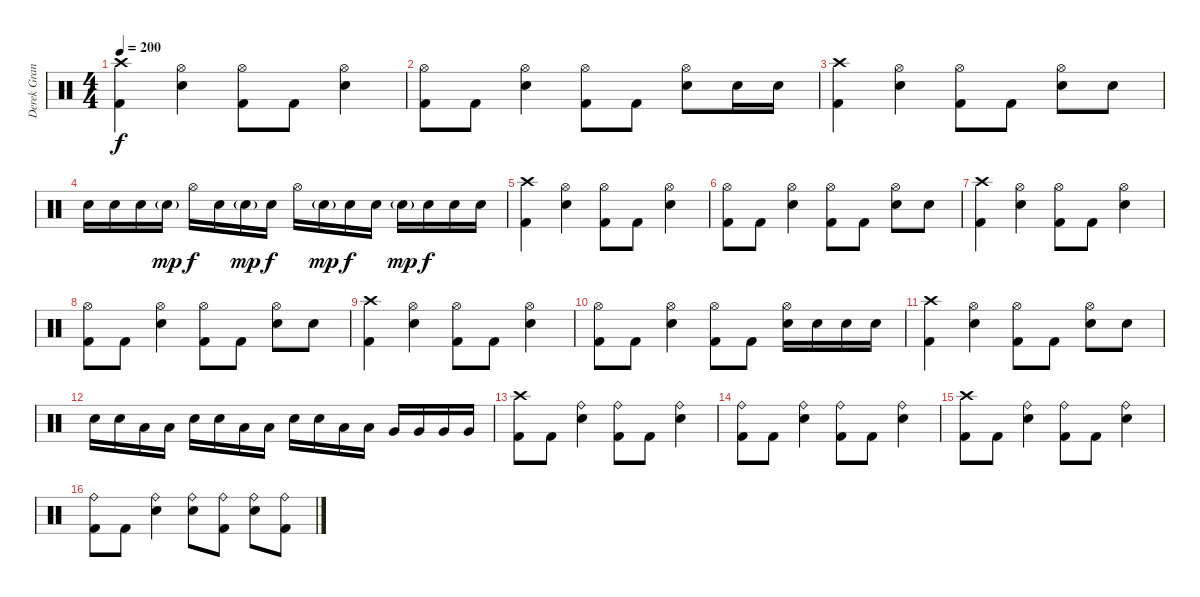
\track ("Derek Grant" "Derek Gran") {instrument percussion}
\staff {score}
\articulation defaults
\ts (4 4)
\tempo 200
\clef neutral
\ks c
("Crash high (hit)" "Kick (hit) 2").4{dy f} ("Hi-Hat (open)" "Electric Snare (hit)").4 ("Hi-Hat (open)" "Kick (hit) 2").8 "Kick (hit) 2".8 ("Hi-Hat (open)" "Electric Snare (hit)").4 |
("Hi-Hat (open)" "Kick (hit) 2").8 "Kick (hit) 2".8 ("Hi-Hat (open)" "Electric Snare (hit)").4 ("Hi-Hat (open)" "Kick (hit) 2").8 "Kick (hit) 2".8 ("Hi-Hat (open)" "Electric Snare (hit)").8 "Electric Snare (hit)".16 "Electric Snare (hit)".16 |
("Crash high (hit)" "Kick (hit) 2").4 ("Hi-Hat (open)" "Electric Snare (hit)").4 ("Hi-Hat (open)" "Kick (hit) 2").8 "Kick (hit) 2".8 ("Hi-Hat (open)" "Electric Snare (hit)").8 "Electric Snare (hit)".8 |
"Electric Snare (hit)".16 "Electric Snare (hit)".16 "Electric Snare (hit)".16 "Electric Snare (hit)"{g}.16{dy mp} "Hi-Hat (open)".16{dy f} "Electric Snare (hit)".16 "Electric Snare (hit)"{g}.16{dy mp} "Electric Snare (hit)".16{dy f} "Hi-Hat (open)".16 "Electric Snare (hit)"{g}.16{dy mp} "Electric Snare (hit)".16{dy f} "Electric Snare (hit)".16 "Electric Snare (hit)"{g}.16{dy mp} "Electric Snare (hit)".16{dy f} "Electric Snare (hit)".16 "Electric Snare (hit)".16 |
("Crash high (hit)" "Kick (hit) 2").4 ("Hi-Hat (open)" "Electric Snare (hit)").4 ("Hi-Hat (open)" "Kick (hit) 2").8 "Kick (hit) 2".8 ("Hi-Hat (open)" "Electric Snare (hit)").4 |
("Hi-Hat (open)" "Kick (hit) 2").8 "Kick (hit) 2".8 ("Hi-Hat (open)" "Electric Snare (hit)").4 ("Hi-Hat (open)" "Kick (hit) 2").8 "Kick (hit) 2".8 ("Hi-Hat (open)" "Electric Snare (hit)").8 "Electric Snare (hit)".8 |
("Crash high (hit)" "Kick (hit) 2").4 ("Hi-Hat (open)" "Electric Snare (hit)").4 ("Hi-Hat (open)" "Kick (hit) 2").8 "Kick (hit) 2".8 ("Hi-Hat (open)" "Electric Snare (hit)").4 |
("Hi-Hat (open)" "Kick (hit) 2").8 "Kick (hit) 2".8 ("Hi-Hat (open)" "Electric Snare (hit)").4 ("Hi-Hat (open)" "Kick (hit) 2").8 "Kick (hit) 2".8 ("Hi-Hat (open)" "Electric Snare (hit)").8 "Electric Snare (hit)".8 |
("Crash high (hit)" "Kick (hit) 2").4 ("Hi-Hat (open)" "Electric Snare (hit)").4 ("Hi-Hat (open)" "Kick (hit) 2").8 "Kick (hit) 2".8 ("Hi-Hat (open)" "Electric Snare (hit)").4 |
("Hi-Hat (open)" "Kick (hit) 2").8 "Kick (hit) 2".8 ("Hi-Hat (open)" "Electric Snare (hit)").4 ("Hi-Hat (open)" "Kick (hit) 2").8 "Kick (hit) 2".8 ("Hi-Hat (open)" "Electric Snare (hit)").16 "Electric Snare (hit)".16 "Electric Snare (hit)".16 "Electric Snare (hit)".16 |
("Crash high (hit)" "Kick (hit) 2").4 ("Hi-Hat (open)" "Electric Snare (hit)").4 ("Hi-Hat (open)" "Kick (hit) 2").8 "Kick (hit) 2".8 ("Hi-Hat (open)" "Electric Snare (hit)").8 "Electric Snare (hit)".8 |
"Electric Snare (hit)".16 "Electric Snare (hit)".16 "Low Tom (hit)".16 "Low Tom (hit)".16 "Electric Snare (hit)".16 "Electric Snare (hit)".16 "Low Tom (hit)".16 "Low Tom (hit)".16 "Electric Snare (hit)".16 "Electric Snare (hit)".16 "Low Tom (hit)".16 "Low Tom (hit)".16 "Very Low Tom (hit)".16 "Very Low Tom (hit)".16 "Very Low Tom (hit)".16 "Very Low Tom (hit)".16 |
("Crash high (hit)" "Kick (hit) 2").8 "Kick (hit) 2".8 ("Ride (bell)" "Electric Snare (hit)").4 ("Ride (bell)" "Kick (hit) 2").8 "Kick (hit) 2".8 ("Ride (bell)" "Electric Snare (hit)").4 |
("Ride (bell)" "Kick (hit) 2").8 "Kick (hit) 2".8 ("Ride (bell)" "Electric Snare (hit)").4 ("Ride (bell)" "Kick (hit) 2").8 "Kick (hit) 2".8 ("Ride (bell)" "Electric Snare (hit)").4 |
("Crash high (hit)" "Kick (hit) 2").8 "Kick (hit) 2".8 ("Ride (bell)" "Electric Snare (hit)").4 ("Ride (bell)" "Kick (hit) 2").8 "Kick (hit) 2".8 ("Ride (bell)" "Electric Snare (hit)").4 |
("Ride (bell)" "Kick (hit) 2").8 "Kick (hit) 2".8 ("Ride (bell)" "Electric Snare (hit)").4 ("Ride (bell)" "Electric Snare (hit)").8 ("Ride (bell)" "Kick (hit) 2").8 ("Ride (bell)" "Electric Snare (hit)").8 ("Ride (bell)" "Kick (hit) 2").8
